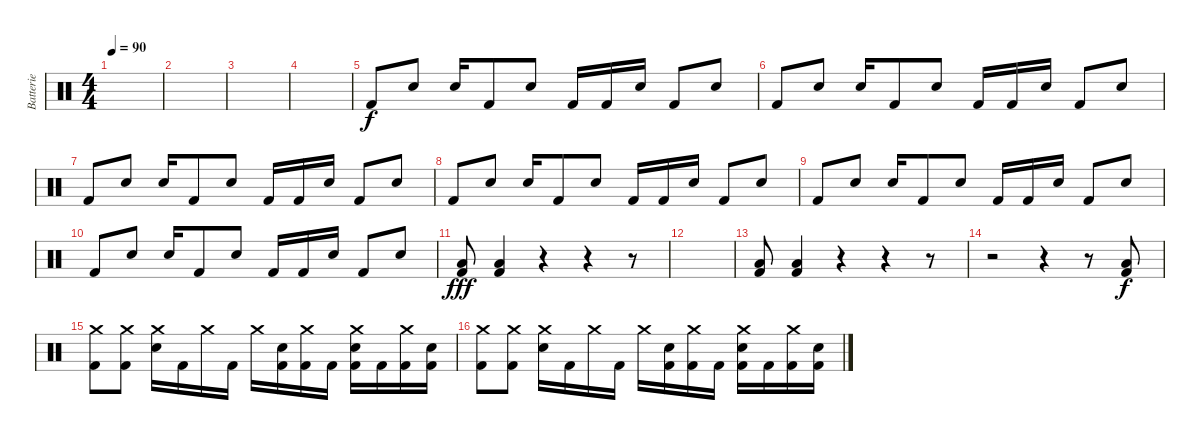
\track ("Batterie" "Batterie") {instrument percussion}
\staff {score}
\articulation defaults
\ts (4 4)
\tempo 90
\clef neutral
\ks c
|
|
|
|
"Kick (hit) 2".8 "Snare (hit) 2".8 "Snare (hit) 2".16 "Kick (hit) 2".8 "Snare (hit) 2".8 "Kick (hit) 2".16 "Kick (hit) 2".16 "Snare (hit) 2".16 "Kick (hit) 2".8 "Snare (hit) 2".8 |
"Kick (hit) 2".8 "Snare (hit) 2".8 "Snare (hit) 2".16 "Kick (hit) 2".8 "Snare (hit) 2".8 "Kick (hit) 2".16 "Kick (hit) 2".16 "Snare (hit) 2".16 "Kick (hit) 2".8 "Snare (hit) 2".8 |
"Kick (hit) 2".8 "Snare (hit) 2".8 "Snare (hit) 2".16 "Kick (hit) 2".8 "Snare (hit) 2".8 "Kick (hit) 2".16 "Kick (hit) 2".16 "Snare (hit) 2".16 "Kick (hit) 2".8 "Snare (hit) 2".8 |
"Kick (hit) 2".8 "Snare (hit) 2".8 "Snare (hit) 2".16 "Kick (hit) 2".8 "Snare (hit) 2".8 "Kick (hit) 2".16 "Kick (hit) 2".16 "Snare (hit) 2".16 "Kick (hit) 2".8 "Snare (hit) 2".8 |
"Kick (hit) 2".8 "Snare (hit) 2".8 "Snare (hit) 2".16 "Kick (hit) 2".8 "Snare (hit) 2".8 "Kick (hit) 2".16 "Kick (hit) 2".16 "Snare (hit) 2".16 "Kick (hit) 2".8 "Snare (hit) 2".8 |
"Kick (hit) 2".8 "Snare (hit) 2".8 "Snare (hit) 2".16 "Kick (hit) 2".8 "Snare (hit) 2".8 "Kick (hit) 2".16 "Kick (hit) 2".16 "Snare (hit) 2".16 "Kick (hit) 2".8 "Snare (hit) 2".8 |
("Low Tom (hit)" "Kick (hit) 2").8{dy fff} ("Low Tom (hit)" "Kick (hit) 2").4 r.4 r.4 r.8 |
|
("Low Tom (hit)" "Kick (hit) 2").8 ("Low Tom (hit)" "Kick (hit) 2").4 r.4 r.4 r.8 |
r.2 r.4 r.8 ("Low Tom (hit)" "Kick (hit) 2").8{dy f} |
("Crash medium (hit)" "Kick (hit) 2").8 ("Crash medium (hit)" "Kick (hit) 2").8 ("Crash medium (hit)" "Snare (hit) 2").16 "Kick (hit) 2".16 "Crash medium (hit)".16 "Kick (hit) 2".16 "Crash medium (hit)".16 ("Snare (hit) 2" "Kick (hit) 2").16 ("Crash medium (hit)" "Kick (hit) 2").16 "Kick (hit) 2".16 ("Crash medium (hit)" "Snare (hit) 2" "Kick (hit) 2").16 "Kick (hit) 2".16 ("Crash medium (hit)" "Kick (hit) 2").16 ("Snare (hit) 2" "Kick (hit) 2").16 |
("Crash medium (hit)" "Kick (hit) 2").8 ("Crash medium (hit)" "Kick (hit) 2").8 ("Crash medium (hit)" "Snare (hit) 2").16 "Kick (hit) 2".16 "Crash medium (hit)".16 "Kick (hit) 2".16 "Crash medium (hit)".16 ("Snare (hit) 2" "Kick (hit) 2").16 ("Crash medium (hit)" "Kick (hit) 2").16 "Kick (hit) 2".16 ("Crash medium (hit)" "Snare (hit) 2" "Kick (hit) 2").16 "Kick (hit) 2".16 ("Crash medium (hit)" "Kick (hit) 2").16 ("Snare (hit) 2" "Kick (hit) 2").16
